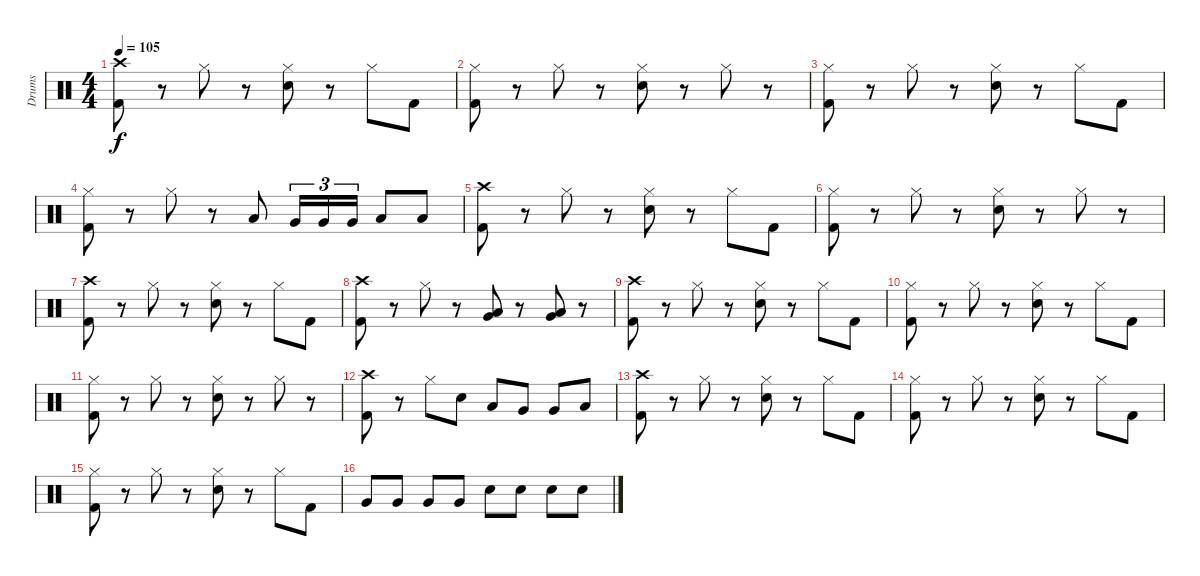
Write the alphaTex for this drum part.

\track ("Drums" "Drums") {instrument percussion}
\staff {score}
\articulation defaults
\ts (4 4)
\tempo 105
\clef neutral
\ks c
("Crash high (hit)" "Kick (hit) 2").8{dy f} r.8 "Hi-Hat (closed)".8 r.8 ("Hi-Hat (closed)" "Snare (hit) 2").8 r.8 "Hi-Hat (closed)".8 "Kick (hit) 2".8 |
("Hi-Hat (closed)" "Kick (hit) 2").8 r.8 "Hi-Hat (closed)".8 r.8 ("Hi-Hat (closed)" "Snare (hit) 2").8 r.8 "Hi-Hat (closed)".8 r.8 |
("Hi-Hat (closed)" "Kick (hit) 2").8 r.8 "Hi-Hat (closed)".8 r.8 ("Hi-Hat (closed)" "Snare (hit) 2").8 r.8 "Hi-Hat (closed)".8 "Kick (hit) 2".8 |
("Hi-Hat (closed)" "Kick (hit) 2").8 r.8 "Hi-Hat (closed)".8 r.8 "Low Tom (hit)".8 "Very Low Tom (hit)".16{tu (3 2)} "Very Low Tom (hit)".16{tu (3 2)} "Very Low Tom (hit)".16{tu (3 2)} "Low Floor Tom (hit)".8 "Low Floor Tom (hit)".8 |
("Crash high (hit)" "Kick (hit) 2").8 r.8 "Hi-Hat (closed)".8 r.8 ("Hi-Hat (closed)" "Snare (hit) 2").8 r.8 "Hi-Hat (closed)".8 "Kick (hit) 2".8 |
("Hi-Hat (closed)" "Kick (hit) 2").8 r.8 "Hi-Hat (closed)".8 r.8 ("Hi-Hat (closed)" "Snare (hit) 2").8 r.8 "Hi-Hat (closed)".8 r.8 |
("Crash high (hit)" "Kick (hit) 2").8 r.8 "Hi-Hat (closed)".8 r.8 ("Hi-Hat (closed)" "Snare (hit) 2").8 r.8 "Hi-Hat (closed)".8 "Kick (hit) 2".8 |
("Crash high (hit)" "Kick (hit) 2").8 r.8 "Hi-Hat (closed)".8 r.8 ("Low Tom (hit)" "Very Low Tom (hit)").8 r.8 ("Very Low Tom (hit)" "Low Floor Tom (hit)").8 r.8 |
("Crash high (hit)" "Kick (hit) 2").8 r.8 "Hi-Hat (closed)".8 r.8 ("Hi-Hat (closed)" "Snare (hit) 2").8 r.8 "Hi-Hat (closed)".8 "Kick (hit) 2".8 |
("Hi-Hat (closed)" "Kick (hit) 2").8 r.8 "Hi-Hat (closed)".8 r.8 ("Hi-Hat (closed)" "Snare (hit) 2").8 r.8 "Hi-Hat (closed)".8 "Kick (hit) 2".8 |
("Hi-Hat (closed)" "Kick (hit) 2").8 r.8 "Hi-Hat (closed)".8 r.8 ("Hi-Hat (closed)" "Snare (hit) 2").8 r.8 "Hi-Hat (closed)".8 r.8 |
("Crash high (hit)" "Kick (hit) 2").8 r.8 "Hi-Hat (closed)".8 "Snare (hit) 2".8 "Low Tom (hit)".8 "Very Low Tom (hit)".8 "Very Low Tom (hit)".8 "Low Floor Tom (hit)".8 |
("Crash high (hit)" "Kick (hit) 2").8 r.8 "Hi-Hat (closed)".8 r.8 ("Hi-Hat (closed)" "Snare (hit) 2").8 r.8 "Hi-Hat (closed)".8 "Kick (hit) 2".8 |
("Hi-Hat (closed)" "Kick (hit) 2").8 r.8 "Hi-Hat (closed)".8 r.8 ("Hi-Hat (closed)" "Snare (hit) 2").8 r.8 "Hi-Hat (closed)".8 "Kick (hit) 2".8 |
("Hi-Hat (closed)" "Kick (hit) 2").8 r.8 "Hi-Hat (closed)".8 r.8 ("Hi-Hat (closed)" "Snare (hit) 2").8 r.8 "Hi-Hat (closed)".8 "Kick (hit) 2".8 |
"Very Low Tom (hit)".8 "Very Low Tom (hit)".8 "Very Low Tom (hit)".8 "Very Low Tom (hit)".8 "Snare (hit) 2".8 "Snare (hit) 2".8 "Snare (hit) 2".8 "Snare (hit) 2".8
